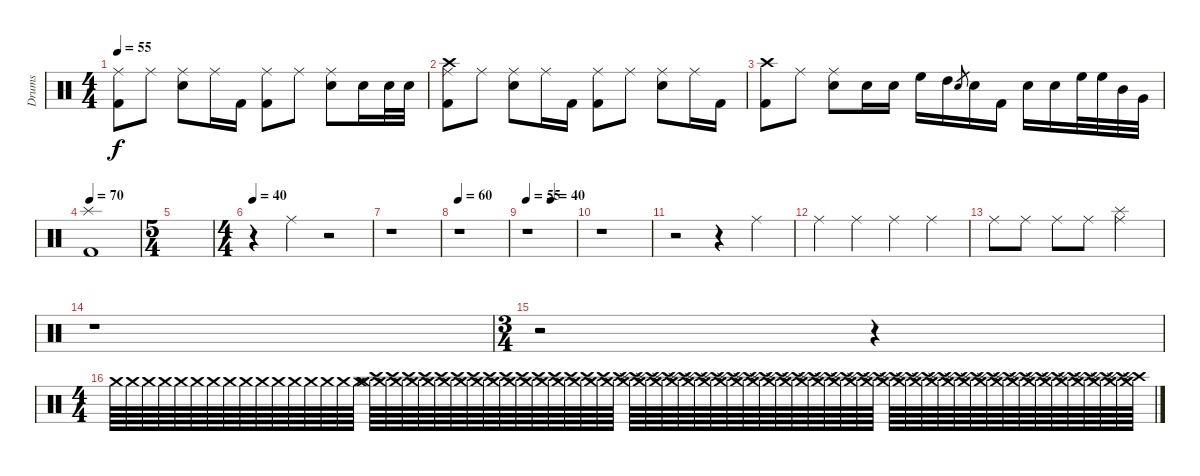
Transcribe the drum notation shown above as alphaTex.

\track ("Drums" "Drums") {instrument percussion}
\staff {score}
\articulation defaults
\ts (4 4)
\tempo 55
\clef neutral
\ks c
("Ride (middle)" "Kick (hit) 2").8{dy f} "Ride (middle)".8 ("Ride (middle)" "Electric Snare (hit)").8 "Ride (middle)".16 "Kick (hit) 2".16 ("Ride (middle)" "Kick (hit) 2").8 "Ride (middle)".8 ("Ride (middle)" "Electric Snare (hit)").8 "Electric Snare (hit)".16 "Electric Snare (hit)".32 "Electric Snare (hit)".32 |
("Crash high (hit)" "Ride (middle)" "Kick (hit) 2").8 "Ride (middle)".8 ("Ride (middle)" "Electric Snare (hit)").8 "Ride (middle)".16 "Kick (hit) 2".16 ("Ride (middle)" "Kick (hit) 2").8 "Ride (middle)".8 ("Ride (middle)" "Electric Snare (hit)").8 "Ride (middle)".16 "Kick (hit) 2".16 |
("Crash high (hit)" "Kick (hit) 2").8 "Ride (middle)".8 ("Ride (middle)" "Electric Snare (hit)").8 "Electric Snare (hit)".16 "Electric Snare (hit)".16 "High Floor Tom (hit)".16 "High Tom (hit)".16 "Electric Snare (hit)".8{gr} "Electric Snare (hit)".16 "Kick (hit) 2".16 "Electric Snare (hit)".16 "Electric Snare (hit)".16 "High Floor Tom (hit)".32 "High Floor Tom (hit)".32 "Mid Tom (hit)".32 "Very Low Tom (hit)".32 |
\tempo 70
("Splash (hit)" "Kick (hit) 2").1 |
\ts (5 4)
|
\ts (4 4)
\tempo 40
r.4 "Ride (middle)".4 r.2 |
r.1 |
\tempo 60
r.1 |
\tempo 55
\tempo (40 0.5)
r.1 |
r.1 |
r.2 r.4 "Ride (middle)".4 |
"Ride (middle)".4 "Ride (middle)".4 "Ride (middle)".4 "Ride (middle)".4 |
"Ride (middle)".8 "Ride (middle)".8 "Ride (middle)".8 "Ride (middle)".8 ("Splash (hit)" "Ride (middle)").2 |
r.1 |
\ts (3 4)
r.2 r.4 |
\ts (4 4)
"Crash medium (hit)".64{volume 2} "Crash medium (hit)".64 "Crash medium (hit)".64 "Crash medium (hit)".64 "Crash medium (hit)".64 "Crash medium (hit)".64 "Crash medium (hit)".64 "Crash medium (hit)".64 "Crash medium (hit)".64{volume 5} "Crash medium (hit)".64 "Crash medium (hit)".64 "Crash medium (hit)".64 "Crash medium (hit)".64 "Crash medium (hit)".64 "Crash medium (hit)".64 "Crash medium (hit)".64 ("Crash medium (hit)" "Crash high (hit)").64{volume 7} ("Crash medium (hit)" "Crash high (hit)").64 ("Crash medium (hit)" "Crash high (hit)").64 ("Crash medium (hit)" "Crash high (hit)").64 ("Crash medium (hit)" "Crash high (hit)").64 ("Crash medium (hit)" "Crash high (hit)").64 ("Crash medium (hit)" "Crash high (hit)").64 ("Crash medium (hit)" "Crash high (hit)").64 ("Crash medium (hit)" "Crash high (hit)").64{volume 10} ("Crash medium (hit)" "Crash high (hit)").64 ("Crash medium (hit)" "Crash high (hit)").64 ("Crash medium (hit)" "Crash high (hit)").64 ("Crash medium (hit)" "Crash high (hit)").64 ("Crash medium (hit)" "Crash high (hit)").64 ("Crash medium (hit)" "Crash high (hit)").64 ("Crash medium (hit)" "Crash high (hit)").64 ("Crash medium (hit)" "Crash high (hit)" "Splash (hit)").64{volume 7} ("Crash medium (hit)" "Crash high (hit)" "Splash (hit)").64 ("Crash medium (hit)" "Crash high (hit)" "Splash (hit)").64 ("Crash medium (hit)" "Crash high (hit)" "Splash (hit)").64 ("Crash medium (hit)" "Crash high (hit)" "Splash (hit)").64 ("Crash medium (hit)" "Crash high (hit)" "Splash (hit)").64 ("Crash medium (hit)" "Crash high (hit)" "Splash (hit)").64 ("Crash medium (hit)" "Crash high (hit)" "Splash (hit)").64 ("Crash medium (hit)" "Crash high (hit)" "Splash (hit)").64 ("Crash medium (hit)" "Crash high (hit)" "Splash (hit)").64{volume 6} ("Crash medium (hit)" "Crash high (hit)" "Splash (hit)").64 ("Crash medium (hit)" "Crash high (hit)" "Splash (hit)").64 ("Crash medium (hit)" "Crash high (hit)" "Splash (hit)").64 ("Crash medium (hit)" "Crash high (hit)" "Splash (hit)").64 ("Crash medium (hit)" "Crash high (hit)" "Splash (hit)").64 ("Crash medium (hit)" "Crash high (hit)" "Splash (hit)").64 ("Crash medium (hit)" "Crash high (hit)" "Splash (hit)").64{volume 8} ("Crash medium (hit)" "Crash high (hit)" "Splash (hit)").64 ("Crash medium (hit)" "Crash high (hit)" "Splash (hit)").64 ("Crash medium (hit)" "Crash high (hit)" "Splash (hit)").64 ("Crash medium (hit)" "Crash high (hit)" "Splash (hit)").64 ("Crash medium (hit)" "Crash high (hit)" "Splash (hit)").64 ("Crash medium (hit)" "Crash high (hit)" "Splash (hit)").64 ("Crash medium (hit)" "Crash high (hit)" "Splash (hit)").64 ("Crash medium (hit)" "Crash high (hit)" "Splash (hit)").64{volume 5} ("Crash medium (hit)" "Crash high (hit)" "Splash (hit)").64 ("Crash medium (hit)" "Crash high (hit)" "Splash (hit)").64 ("Crash medium (hit)" "Crash high (hit)" "Splash (hit)").64 ("Crash medium (hit)" "Crash high (hit)" "Splash (hit)").64 ("Crash medium (hit)" "Crash high (hit)" "Splash (hit)").64 ("Crash medium (hit)" "Crash high (hit)" "Splash (hit)").64{volume 9} ("Crash medium (hit)" "Crash high (hit)" "Splash (hit)").64
